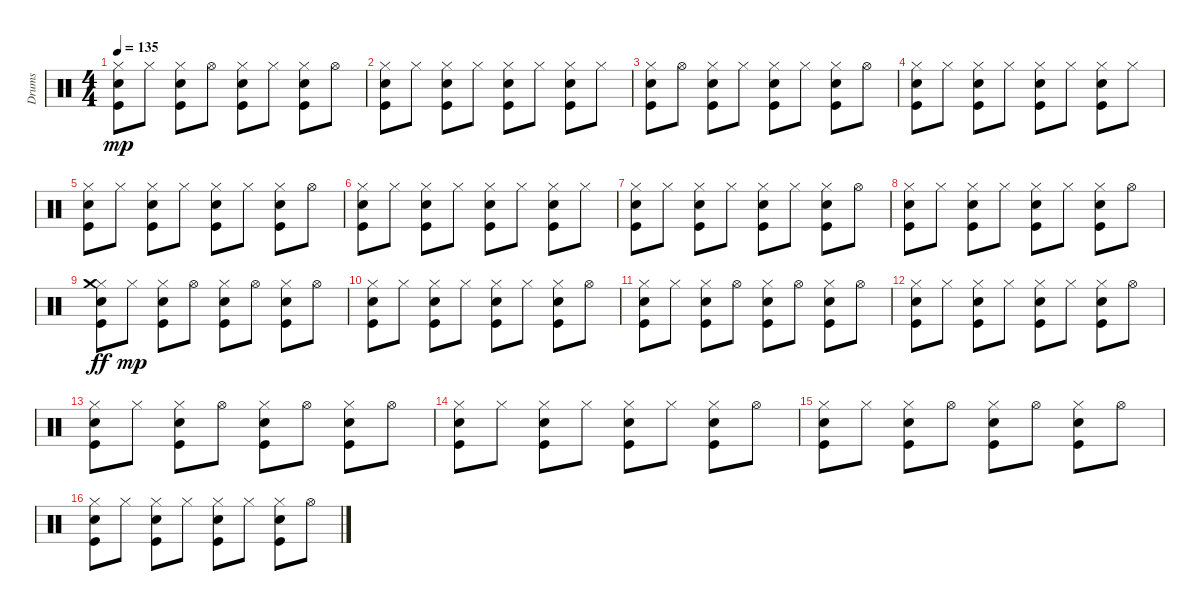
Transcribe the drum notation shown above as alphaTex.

\track ("Drums   " "Drums   ") {instrument percussion}
\staff {score}
\articulation defaults
\ts (4 4)
\tempo 135
\clef neutral
\ks c
("Snare (hit) 2" "Hi-Hat (closed)" "Kick (hit)").8{dy mp} "Hi-Hat (closed)".8 ("Snare (hit) 2" "Hi-Hat (closed)" "Kick (hit)").8 "Hi-Hat (open)".8 ("Snare (hit) 2" "Hi-Hat (closed)" "Kick (hit)").8 "Hi-Hat (closed)".8 ("Snare (hit) 2" "Hi-Hat (closed)" "Kick (hit)").8 "Hi-Hat (open)".8 |
("Snare (hit) 2" "Hi-Hat (closed)" "Kick (hit)").8 "Hi-Hat (closed)".8 ("Snare (hit) 2" "Hi-Hat (closed)" "Kick (hit)").8 "Hi-Hat (closed)".8 ("Snare (hit) 2" "Hi-Hat (closed)" "Kick (hit)").8 "Hi-Hat (closed)".8 ("Snare (hit) 2" "Hi-Hat (closed)" "Kick (hit)").8 "Hi-Hat (closed)".8 |
("Snare (hit) 2" "Hi-Hat (closed)" "Kick (hit)").8 "Hi-Hat (open)".8 ("Snare (hit) 2" "Hi-Hat (closed)" "Kick (hit)").8 "Hi-Hat (closed)".8 ("Snare (hit) 2" "Hi-Hat (closed)" "Kick (hit)").8 "Hi-Hat (closed)".8 ("Snare (hit) 2" "Hi-Hat (closed)" "Kick (hit)").8 "Hi-Hat (open)".8 |
("Snare (hit) 2" "Hi-Hat (closed)" "Kick (hit)").8 "Hi-Hat (closed)".8 ("Snare (hit) 2" "Hi-Hat (closed)" "Kick (hit)").8 "Hi-Hat (closed)".8 ("Snare (hit) 2" "Hi-Hat (closed)" "Kick (hit)").8 "Hi-Hat (closed)".8 ("Snare (hit) 2" "Hi-Hat (closed)" "Kick (hit)").8 "Hi-Hat (closed)".8 |
("Snare (hit) 2" "Hi-Hat (closed)" "Kick (hit)").8 "Hi-Hat (closed)".8 ("Snare (hit) 2" "Hi-Hat (closed)" "Kick (hit)").8 "Hi-Hat (closed)".8 ("Snare (hit) 2" "Hi-Hat (closed)" "Kick (hit)").8 "Hi-Hat (closed)".8 ("Snare (hit) 2" "Hi-Hat (closed)" "Kick (hit)").8 "Hi-Hat (open)".8 |
("Snare (hit) 2" "Hi-Hat (closed)" "Kick (hit)").8 "Hi-Hat (closed)".8 ("Snare (hit) 2" "Hi-Hat (closed)" "Kick (hit)").8 "Hi-Hat (closed)".8 ("Snare (hit) 2" "Hi-Hat (closed)" "Kick (hit)").8 "Hi-Hat (closed)".8 ("Snare (hit) 2" "Hi-Hat (closed)" "Kick (hit)").8 "Hi-Hat (closed)".8 |
("Snare (hit) 2" "Hi-Hat (closed)" "Kick (hit)").8 "Hi-Hat (closed)".8 ("Snare (hit) 2" "Hi-Hat (closed)" "Kick (hit)").8 "Hi-Hat (closed)".8 ("Snare (hit) 2" "Hi-Hat (closed)" "Kick (hit)").8 "Hi-Hat (closed)".8 ("Snare (hit) 2" "Hi-Hat (closed)" "Kick (hit)").8 "Hi-Hat (open)".8 |
("Snare (hit) 2" "Hi-Hat (closed)" "Kick (hit)").8 "Hi-Hat (closed)".8 ("Snare (hit) 2" "Hi-Hat (closed)" "Kick (hit)").8 "Hi-Hat (closed)".8 ("Snare (hit) 2" "Hi-Hat (closed)" "Kick (hit)").8 "Hi-Hat (closed)".8 ("Snare (hit) 2" "Hi-Hat (closed)" "Kick (hit)").8 "Hi-Hat (open)".8 |
("Snare (hit) 2" "Hi-Hat (closed)" "Kick (hit)" "Crash medium (hit)").8{dy ff} "Hi-Hat (closed)".8{dy mp} ("Snare (hit) 2" "Hi-Hat (closed)" "Kick (hit)").8 "Hi-Hat (open)".8 ("Snare (hit) 2" "Hi-Hat (closed)" "Kick (hit)").8 "Hi-Hat (open)".8 ("Snare (hit) 2" "Hi-Hat (closed)" "Kick (hit)").8 "Hi-Hat (open)".8 |
("Snare (hit) 2" "Hi-Hat (closed)" "Kick (hit)").8 "Hi-Hat (closed)".8 ("Snare (hit) 2" "Hi-Hat (closed)" "Kick (hit)").8 "Hi-Hat (closed)".8 ("Snare (hit) 2" "Hi-Hat (closed)" "Kick (hit)").8 "Hi-Hat (closed)".8 ("Snare (hit) 2" "Hi-Hat (closed)" "Kick (hit)").8 "Hi-Hat (open)".8 |
("Snare (hit) 2" "Hi-Hat (closed)" "Kick (hit)").8 "Hi-Hat (closed)".8 ("Snare (hit) 2" "Hi-Hat (closed)" "Kick (hit)").8 "Hi-Hat (open)".8 ("Snare (hit) 2" "Hi-Hat (closed)" "Kick (hit)").8 "Hi-Hat (open)".8 ("Snare (hit) 2" "Hi-Hat (closed)" "Kick (hit)").8 "Hi-Hat (open)".8 |
("Snare (hit) 2" "Hi-Hat (closed)" "Kick (hit)").8 "Hi-Hat (closed)".8 ("Snare (hit) 2" "Hi-Hat (closed)" "Kick (hit)").8 "Hi-Hat (closed)".8 ("Snare (hit) 2" "Hi-Hat (closed)" "Kick (hit)").8 "Hi-Hat (closed)".8 ("Snare (hit) 2" "Hi-Hat (closed)" "Kick (hit)").8 "Hi-Hat (open)".8 |
("Snare (hit) 2" "Hi-Hat (closed)" "Kick (hit)").8 "Hi-Hat (closed)".8 ("Snare (hit) 2" "Hi-Hat (closed)" "Kick (hit)").8 "Hi-Hat (open)".8 ("Snare (hit) 2" "Hi-Hat (closed)" "Kick (hit)").8 "Hi-Hat (open)".8 ("Snare (hit) 2" "Hi-Hat (closed)" "Kick (hit)").8 "Hi-Hat (open)".8 |
("Snare (hit) 2" "Hi-Hat (closed)" "Kick (hit)").8 "Hi-Hat (closed)".8 ("Snare (hit) 2" "Hi-Hat (closed)" "Kick (hit)").8 "Hi-Hat (closed)".8 ("Snare (hit) 2" "Hi-Hat (closed)" "Kick (hit)").8 "Hi-Hat (closed)".8 ("Snare (hit) 2" "Hi-Hat (closed)" "Kick (hit)").8 "Hi-Hat (open)".8 |
("Snare (hit) 2" "Hi-Hat (closed)" "Kick (hit)").8 "Hi-Hat (closed)".8 ("Snare (hit) 2" "Hi-Hat (closed)" "Kick (hit)").8 "Hi-Hat (open)".8 ("Snare (hit) 2" "Hi-Hat (closed)" "Kick (hit)").8 "Hi-Hat (open)".8 ("Snare (hit) 2" "Hi-Hat (closed)" "Kick (hit)").8 "Hi-Hat (open)".8 |
("Snare (hit) 2" "Hi-Hat (closed)" "Kick (hit)").8 "Hi-Hat (closed)".8 ("Snare (hit) 2" "Hi-Hat (closed)" "Kick (hit)").8 "Hi-Hat (closed)".8 ("Snare (hit) 2" "Hi-Hat (closed)" "Kick (hit)").8 "Hi-Hat (closed)".8 ("Snare (hit) 2" "Hi-Hat (closed)" "Kick (hit)").8 "Hi-Hat (open)".8
